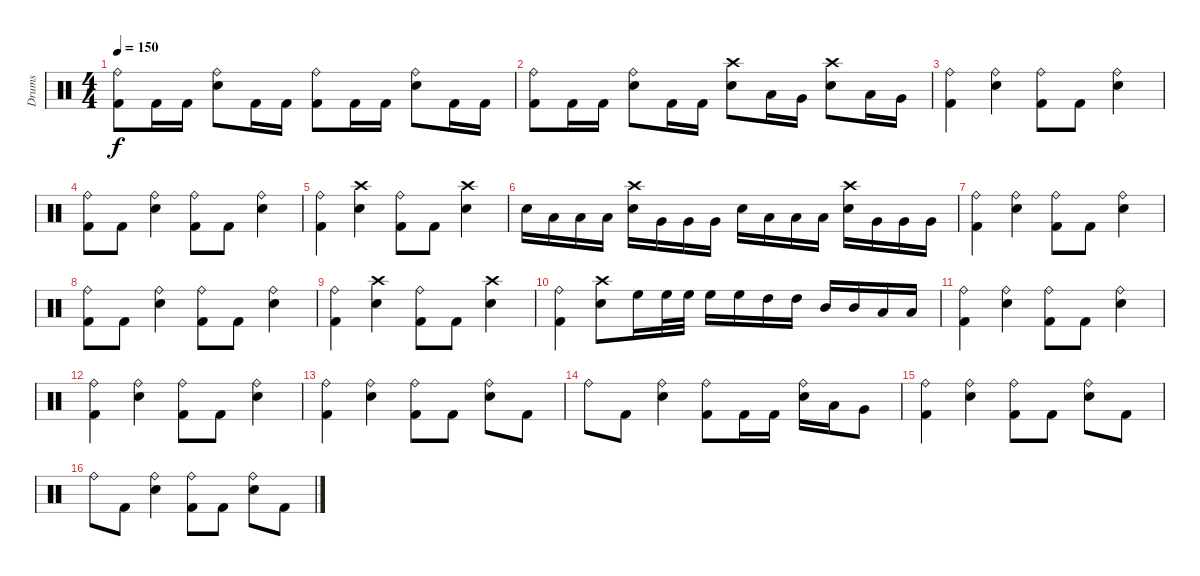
\track ("Drums" "Drums") {instrument percussion}
\staff {score}
\articulation defaults
\ts (4 4)
\tempo 150
\clef neutral
\ks c
("Ride (bell)" "Kick (hit) 2").8{dy f} "Kick (hit) 2".16 "Kick (hit) 2".16 ("Ride (bell)" "Electric Snare (hit)").8 "Kick (hit) 2".16 "Kick (hit) 2".16 ("Ride (bell)" "Kick (hit) 2").8 "Kick (hit) 2".16 "Kick (hit) 2".16 ("Ride (bell)" "Electric Snare (hit)").8 "Kick (hit) 2".16 "Kick (hit) 2".16 |
("Ride (bell)" "Kick (hit) 2").8 "Kick (hit) 2".16 "Kick (hit) 2".16 ("Ride (bell)" "Electric Snare (hit)").8 "Kick (hit) 2".16 "Kick (hit) 2".16 ("Crash high (hit)" "Electric Snare (hit)").8 "Low Tom (hit)".16 "Very Low Tom (hit)".16 ("Crash high (hit)" "Electric Snare (hit)").8 "Low Tom (hit)".16 "Very Low Tom (hit)".16 |
("Ride (bell)" "Kick (hit) 2").4 ("Ride (bell)" "Electric Snare (hit)").4 ("Ride (bell)" "Kick (hit) 2").8 "Kick (hit) 2".8 ("Ride (bell)" "Electric Snare (hit)").4 |
("Ride (bell)" "Kick (hit) 2").8 "Kick (hit) 2".8 ("Ride (bell)" "Electric Snare (hit)").4 ("Ride (bell)" "Kick (hit) 2").8 "Kick (hit) 2".8 ("Ride (bell)" "Electric Snare (hit)").4 |
("Ride (bell)" "Kick (hit) 2").4 ("Crash high (hit)" "Electric Snare (hit)").4 ("Ride (bell)" "Kick (hit) 2").8 "Kick (hit) 2".8 ("Crash high (hit)" "Electric Snare (hit)").4 |
"Electric Snare (hit)".16 "Low Tom (hit)".16 "Low Tom (hit)".16 "Low Tom (hit)".16 ("Crash high (hit)" "Electric Snare (hit)").16 "Very Low Tom (hit)".16 "Very Low Tom (hit)".16 "Very Low Tom (hit)".16 "Electric Snare (hit)".16 "Low Tom (hit)".16 "Low Tom (hit)".16 "Low Tom (hit)".16 ("Crash high (hit)" "Electric Snare (hit)").16 "Very Low Tom (hit)".16 "Very Low Tom (hit)".16 "Very Low Tom (hit)".16 |
("Ride (bell)" "Kick (hit) 2").4 ("Ride (bell)" "Electric Snare (hit)").4 ("Ride (bell)" "Kick (hit) 2").8 "Kick (hit) 2".8 ("Ride (bell)" "Electric Snare (hit)").4 |
("Ride (bell)" "Kick (hit) 2").8 "Kick (hit) 2".8 ("Ride (bell)" "Electric Snare (hit)").4 ("Ride (bell)" "Kick (hit) 2").8 "Kick (hit) 2".8 ("Ride (bell)" "Electric Snare (hit)").4 |
("Ride (bell)" "Kick (hit) 2").4 ("Crash high (hit)" "Electric Snare (hit)").4 ("Ride (bell)" "Kick (hit) 2").8 "Kick (hit) 2".8 ("Crash high (hit)" "Electric Snare (hit)").4 |
("Ride (bell)" "Kick (hit) 2").4 ("Crash high (hit)" "Electric Snare (hit)").8 "High Floor Tom (hit)".16 "High Floor Tom (hit)".32 "High Floor Tom (hit)".32 "High Floor Tom (hit)".16 "High Floor Tom (hit)".16 "High Tom (hit)".16 "High Tom (hit)".16 "Mid Tom (hit)".16 "Mid Tom (hit)".16 "Low Tom (hit)".16 "Low Tom (hit)".16 |
("Ride (bell)" "Kick (hit) 2").4 ("Ride (bell)" "Electric Snare (hit)").4 ("Ride (bell)" "Kick (hit) 2").8 "Kick (hit) 2".8 ("Ride (bell)" "Electric Snare (hit)").4 |
("Ride (bell)" "Kick (hit) 2").4 ("Ride (bell)" "Electric Snare (hit)").4 ("Ride (bell)" "Kick (hit) 2").8 "Kick (hit) 2".8 ("Ride (bell)" "Electric Snare (hit)").4 |
("Ride (bell)" "Kick (hit) 2").4 ("Ride (bell)" "Electric Snare (hit)").4 ("Ride (bell)" "Kick (hit) 2").8 "Kick (hit) 2".8 ("Ride (bell)" "Electric Snare (hit)").8 "Kick (hit) 2".8 |
"Ride (bell)".8 "Kick (hit) 2".8 ("Ride (bell)" "Electric Snare (hit)").4 ("Ride (bell)" "Kick (hit) 2").8 "Kick (hit) 2".16 "Kick (hit) 2".16 ("Ride (bell)" "Electric Snare (hit)").16 "Low Tom (hit)".16 "Very Low Tom (hit)".8 |
("Ride (bell)" "Kick (hit) 2").4 ("Ride (bell)" "Electric Snare (hit)").4 ("Ride (bell)" "Kick (hit) 2").8 "Kick (hit) 2".8 ("Ride (bell)" "Electric Snare (hit)").8 "Kick (hit) 2".8 |
"Ride (bell)".8 "Kick (hit) 2".8 ("Ride (bell)" "Electric Snare (hit)").4 ("Ride (bell)" "Kick (hit) 2").8 "Kick (hit) 2".8 ("Ride (bell)" "Electric Snare (hit)").8 "Kick (hit) 2".8
